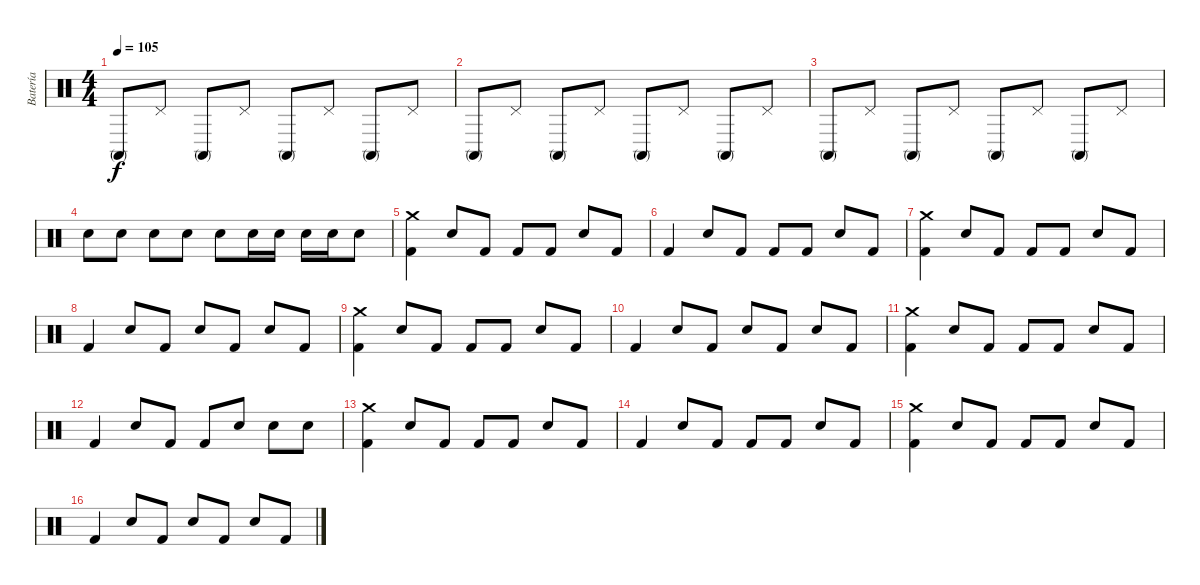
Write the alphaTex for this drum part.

\track ("Batería" "Batería") {instrument percussion}
\staff {score}
\articulation defaults
\ts (4 4)
\tempo 105
\clef neutral
\ks c "Conga high (mute)".8{dy f} "Pedal Hi-Hat (hit)".8 "Conga high (mute)".8 "Pedal Hi-Hat (hit)".8 "Conga high (mute)".8 "Pedal Hi-Hat (hit)".8 "Conga high (mute)".8 "Pedal Hi-Hat (hit)".8
|
"Conga high (mute)".8 "Pedal Hi-Hat (hit)".8 "Conga high (mute)".8 "Pedal Hi-Hat (hit)".8 "Conga high (mute)".8 "Pedal Hi-Hat (hit)".8 "Conga high (mute)".8 "Pedal Hi-Hat (hit)".8 |
"Conga high (mute)".8 "Pedal Hi-Hat (hit)".8 "Conga high (mute)".8 "Pedal Hi-Hat (hit)".8 "Conga high (mute)".8 "Pedal Hi-Hat (hit)".8 "Conga high (mute)".8 "Pedal Hi-Hat (hit)".8 |
"Snare (hit) 2".8 "Snare (hit) 2".8 "Snare (hit) 2".8 "Snare (hit) 2".8 "Snare (hit) 2".8 "Snare (hit) 2".16 "Snare (hit) 2".16 "Snare (hit) 2".16 "Snare (hit) 2".16 "Snare (hit) 2".8 |
("Kick (hit) 2" "Crash medium (hit)").4 "Snare (hit) 2".8 "Kick (hit) 2".8 "Kick (hit) 2".8 "Kick (hit) 2".8 "Snare (hit) 2".8 "Kick (hit) 2".8 |
"Kick (hit) 2".4 "Snare (hit) 2".8 "Kick (hit) 2".8 "Kick (hit) 2".8 "Kick (hit) 2".8 "Snare (hit) 2".8 "Kick (hit) 2".8 |
("Crash medium (hit)" "Kick (hit) 2").4 "Snare (hit) 2".8 "Kick (hit) 2".8 "Kick (hit) 2".8 "Kick (hit) 2".8 "Snare (hit) 2".8 "Kick (hit) 2".8 |
"Kick (hit) 2".4 "Snare (hit) 2".8 "Kick (hit) 2".8 "Snare (hit) 2".8 "Kick (hit) 2".8 "Snare (hit) 2".8 "Kick (hit) 2".8 |
("Crash medium (hit)" "Kick (hit) 2").4 "Snare (hit) 2".8 "Kick (hit) 2".8 "Kick (hit) 2".8 "Kick (hit) 2".8 "Snare (hit) 2".8 "Kick (hit) 2".8 |
"Kick (hit) 2".4 "Snare (hit) 2".8 "Kick (hit) 2".8 "Electric Snare (hit)".8 "Kick (hit) 2".8 "Snare (hit) 2".8 "Kick (hit) 2".8 |
("Crash medium (hit)" "Kick (hit) 2").4 "Snare (hit) 2".8 "Kick (hit) 2".8 "Kick (hit) 2".8 "Kick (hit) 2".8 "Snare (hit) 2".8 "Kick (hit) 2".8 |
"Kick (hit) 2".4 "Snare (hit) 2".8 "Kick (hit) 2".8 "Kick (hit) 2".8 "Snare (hit) 2".8 "Snare (hit) 2".8 "Snare (hit) 2".8 |
("Kick (hit) 2" "Crash medium (hit)").4 "Snare (hit) 2".8 "Kick (hit) 2".8 "Kick (hit) 2".8 "Kick (hit) 2".8 "Snare (hit) 2".8 "Kick (hit) 2".8 |
"Kick (hit) 2".4 "Snare (hit) 2".8 "Kick (hit) 2".8 "Kick (hit) 2".8 "Kick (hit) 2".8 "Snare (hit) 2".8 "Kick (hit) 2".8 |
("Crash medium (hit)" "Kick (hit) 2").4 "Snare (hit) 2".8 "Kick (hit) 2".8 "Kick (hit) 2".8 "Kick (hit) 2".8 "Snare (hit) 2".8 "Kick (hit) 2".8 |
"Kick (hit) 2".4 "Snare (hit) 2".8 "Kick (hit) 2".8 "Snare (hit) 2".8 "Kick (hit) 2".8 "Snare (hit) 2".8 "Kick (hit) 2".8
